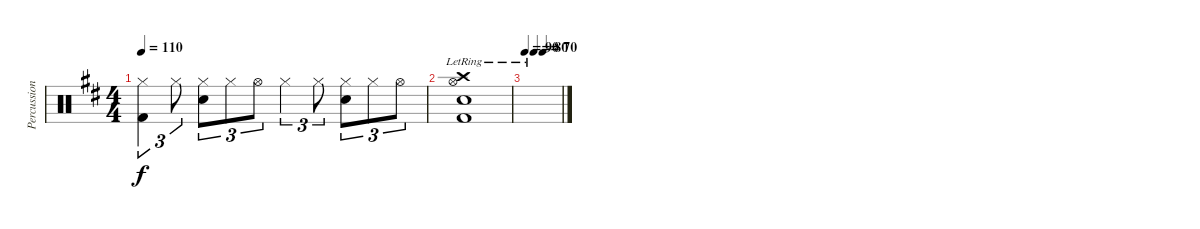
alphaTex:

\track ("Percussion" "Percussion") {instrument percussion}
\staff {score}
\articulation defaults
\ts (4 4)
\tempo 110
\clef neutral
\ks d
("Hi-Hat (closed)" "Kick (hit) 2").4{tu (3 2) dy f} "Hi-Hat (closed)".8{tu (3 2)} ("Hi-Hat (closed)" "Snare (hit) 2").8{tu (3 2)} "Hi-Hat (closed)".8{tu (3 2)} "Hi-Hat (open)".8{tu (3 2)} "Hi-Hat (closed)".4{tu (3 2)} "Hi-Hat (closed)".8{tu (3 2)} ("Hi-Hat (closed)" "Snare (hit) 2").8{tu (3 2)} "Hi-Hat (closed)".8{tu (3 2)} "Hi-Hat (open)".8{tu (3 2)} |
("Crash high (hit)"{lr} "Hi-Hat (open)"{lr} "Kick (hit) 2" "Snare (hit) 2").1 |
\tempo 90
\tempo (80 0.25)
\tempo (70 0.5)
